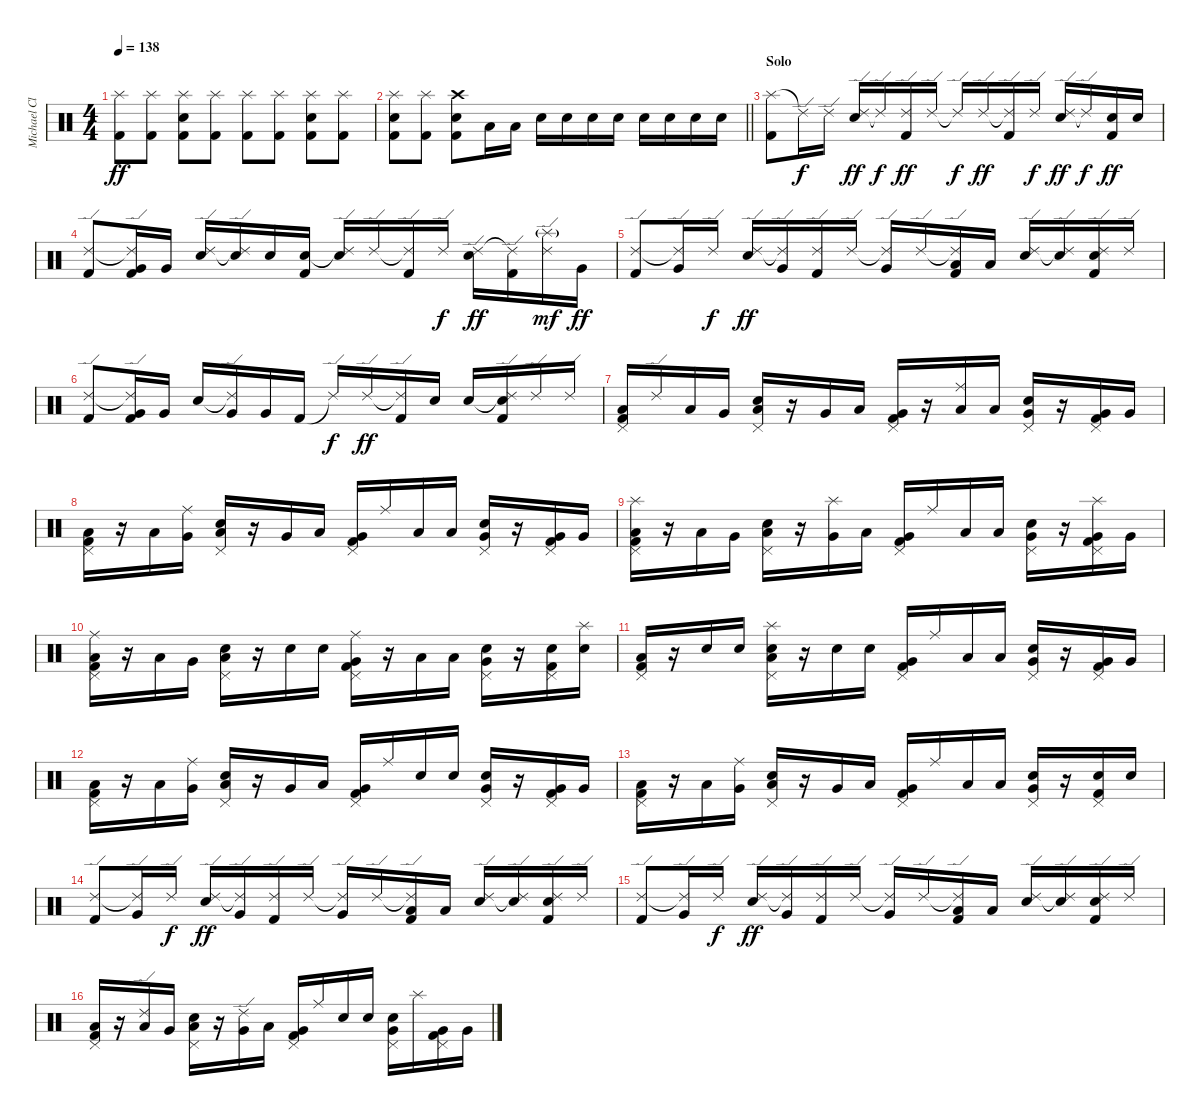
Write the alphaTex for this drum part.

\track ("Michael Clarke" "Michael Cl") {instrument percussion}
\staff {score}
\articulation defaults
\ts (4 4)
\tempo 138
\clef neutral
\ks c
("Splash (hit)" "Kick (hit) 2").8{dy ff} ("Splash (hit)" "Kick (hit) 2").8 ("Splash (hit)" "Snare (hit) 2" "Kick (hit) 2").8 ("Splash (hit)" "Kick (hit) 2").8 ("Splash (hit)" "Kick (hit) 2").8 ("Splash (hit)" "Kick (hit) 2").8 ("Splash (hit)" "Snare (hit) 2" "Kick (hit) 2").8 ("Splash (hit)" "Kick (hit) 2").8 |
\barLineRight lightlight
("Splash (hit)" "Snare (hit) 2" "Kick (hit) 2").8 ("Splash (hit)" "Kick (hit) 2").8 ("Crash high (hit)" "Snare (hit) 2" "Kick (hit) 2").8 "Low Tom (hit)".16 "Low Tom (hit)".16 "Snare (hit) 2".16 "Snare (hit) 2".16 "Snare (hit) 2".16 "Snare (hit) 2".16 "Snare (hit) 2".16 "Snare (hit) 2".16 "Snare (hit) 2".16 "Snare (hit) 2".16 |
\section ("" "Solo")
("Splash (hit)" "Kick (hit) 2").8 "Ride (edge) 2"{t}.16{dy f} "Ride (edge) 2".16 ("Ride (edge) 2" "Snare (hit) 2").16{dy ff} "Ride (edge) 2"{t}.16{dy f} ("Ride (edge) 2" "Kick (hit) 2").16{dy ff} "Ride (edge) 2".16 "Ride (edge) 2"{t}.16{dy f} "Ride (edge) 2".16{dy ff} ("Ride (edge) 2"{t} "Kick (hit) 2").16 "Ride (edge) 2".16{dy f} ("Ride (edge) 2" "Snare (hit) 2").16{dy ff} "Ride (edge) 2"{t}.16{dy f} ("Snare (hit) 2" "Kick (hit) 2").16{dy ff} "Snare (hit) 2".16 |
("Ride (edge) 2" "Kick (hit) 2").8 ("Ride (edge) 2"{t} "Very Low Tom (hit)" "Kick (hit) 2").16 "Very Low Tom (hit)".16 ("Ride (edge) 2" "Snare (hit) 2").16 ("Ride (edge) 2"{t} "Snare (hit) 2").16 "Snare (hit) 2".16 ("Snare (hit) 2" "Kick (hit) 2").16 ("Ride (edge) 2"{t} "Snare (hit) 2").16 "Ride (edge) 2".16 ("Ride (edge) 2"{t} "Kick (hit) 2").16 "Ride (edge) 2".16{dy f} ("Ride (edge) 2" "Snare (hit) 2").16{dy ff} ("Ride (edge) 2"{t} "Kick (hit) 2").16 ("Ride (edge) 2" "Splash (hit)"{g}).16{dy mf} "Very Low Tom (hit)".16{dy ff} |
("Ride (edge) 2" "Kick (hit) 2").8 ("Ride (edge) 2"{t} "Very Low Tom (hit)").16 "Ride (edge) 2".16{dy f} ("Ride (edge) 2" "Snare (hit) 2").16{dy ff} ("Ride (edge) 2"{t} "Very Low Tom (hit)").16 ("Ride (edge) 2" "Kick (hit) 2").16 "Ride (edge) 2".16 ("Ride (edge) 2"{t} "Very Low Tom (hit)").16 "Ride (edge) 2".16 ("Ride (edge) 2"{t} "Low Tom (hit)" "Kick (hit) 2").16 "Low Tom (hit)".16 ("Ride (edge) 2" "Snare (hit) 2").16 ("Ride (edge) 2"{t} "Snare (hit) 2").16 ("Ride (edge) 2" "Snare (hit) 2" "Kick (hit) 2").16 "Ride (edge) 2".16 |
("Ride (edge) 2" "Kick (hit) 2").8 ("Ride (edge) 2"{t} "Very Low Tom (hit)" "Kick (hit) 2").16 "Very Low Tom (hit)".16 "Snare (hit) 2".16 ("Ride (edge) 2"{t} "Very Low Tom (hit)").16 "Very Low Tom (hit)".16 "Kick (hit) 2".16 "Ride (edge) 2"{t}.16{dy f} "Ride (edge) 2".16{dy ff} ("Ride (edge) 2"{t} "Kick (hit) 2").16 "Snare (hit) 2".16 "Snare (hit) 2".16 ("Ride (edge) 2"{t} "Snare (hit) 2" "Kick (hit) 2").16 "Ride (edge) 2".16 "Ride (edge) 2".16 |
("Pedal Hi-Hat (hit)" "Low Floor Tom (hit)" "Kick (hit) 2").16 "Ride (edge) 2".16 "Low Floor Tom (hit)".16 "Very Low Tom (hit)".16 ("Pedal Hi-Hat (hit)" "Low Floor Tom (hit)" "Snare (hit) 2").16 r.16 "Very Low Tom (hit)".16 "Low Floor Tom (hit)".16 ("Pedal Hi-Hat (hit)" "Very Low Tom (hit)" "Kick (hit) 2").16 r.16 ("Ride (middle)" "Low Floor Tom (hit)").16 "Low Floor Tom (hit)".16 ("Pedal Hi-Hat (hit)" "Very Low Tom (hit)" "Snare (hit) 2").16 r.16 ("Pedal Hi-Hat (hit)" "Very Low Tom (hit)" "Kick (hit) 2").16 "Very Low Tom (hit)".16 |
("Pedal Hi-Hat (hit)" "Low Floor Tom (hit)" "Kick (hit) 2").16 r.16 "Low Floor Tom (hit)".16 ("Ride (middle)" "Very Low Tom (hit)").16 ("Pedal Hi-Hat (hit)" "Low Floor Tom (hit)" "Snare (hit) 2").16 r.16 "Very Low Tom (hit)".16 "Low Floor Tom (hit)".16 ("Pedal Hi-Hat (hit)" "Very Low Tom (hit)" "Kick (hit) 2").16 "Ride (middle)".16 "Low Floor Tom (hit)".16 "Low Floor Tom (hit)".16 ("Pedal Hi-Hat (hit)" "Very Low Tom (hit)" "Snare (hit) 2").16 r.16 ("Pedal Hi-Hat (hit)" "Very Low Tom (hit)" "Kick (hit) 2").16 "Very Low Tom (hit)".16 |
("Splash (hit)" "Pedal Hi-Hat (hit)" "Low Floor Tom (hit)" "Kick (hit) 2").16 r.16 "Low Floor Tom (hit)".16 "Very Low Tom (hit)".16 ("Pedal Hi-Hat (hit)" "Low Floor Tom (hit)" "Snare (hit) 2").16 r.16 ("Splash (hit)" "Very Low Tom (hit)").16 "Low Floor Tom (hit)".16 ("Pedal Hi-Hat (hit)" "Very Low Tom (hit)" "Kick (hit) 2").16 "Ride (middle)".16 "Low Floor Tom (hit)".16 "Low Floor Tom (hit)".16 ("Pedal Hi-Hat (hit)" "Very Low Tom (hit)" "Snare (hit) 2").16 r.16 ("Splash (hit)" "Pedal Hi-Hat (hit)" "Very Low Tom (hit)" "Kick (hit) 2").16 "Very Low Tom (hit)".16 |
("Ride (middle)" "Pedal Hi-Hat (hit)" "Low Floor Tom (hit)" "Kick (hit) 2").16 r.16 "Low Floor Tom (hit)".16 "Very Low Tom (hit)".16 ("Pedal Hi-Hat (hit)" "Low Floor Tom (hit)" "Snare (hit) 2").16 r.16 "Snare (hit) 2".16 "Snare (hit) 2".16 ("Ride (middle)" "Pedal Hi-Hat (hit)" "Very Low Tom (hit)" "Kick (hit) 2").16 r.16 "Low Floor Tom (hit)".16 "Low Floor Tom (hit)".16 ("Pedal Hi-Hat (hit)" "Very Low Tom (hit)" "Snare (hit) 2").16 r.16 ("Pedal Hi-Hat (hit)" "Snare (hit) 2" "Kick (hit) 2").16 ("Splash (hit)" "Snare (hit) 2").16 |
("Pedal Hi-Hat (hit)" "Low Floor Tom (hit)" "Kick (hit) 2").16 r.16 "Snare (hit) 2".16 "Snare (hit) 2".16 ("Splash (hit)" "Pedal Hi-Hat (hit)" "Low Floor Tom (hit)" "Snare (hit) 2").16 r.16 "Snare (hit) 2".16 "Snare (hit) 2".16 ("Pedal Hi-Hat (hit)" "Very Low Tom (hit)" "Kick (hit) 2").16 "Ride (middle)".16 "Low Floor Tom (hit)".16 "Low Floor Tom (hit)".16 ("Pedal Hi-Hat (hit)" "Very Low Tom (hit)" "Snare (hit) 2").16 r.16 ("Pedal Hi-Hat (hit)" "Very Low Tom (hit)" "Kick (hit) 2").16 "Very Low Tom (hit)".16 |
("Pedal Hi-Hat (hit)" "Low Floor Tom (hit)" "Kick (hit) 2").16 r.16 "Low Floor Tom (hit)".16 ("Ride (middle)" "Very Low Tom (hit)").16 ("Pedal Hi-Hat (hit)" "Low Floor Tom (hit)" "Snare (hit) 2").16 r.16 "Very Low Tom (hit)".16 "Low Floor Tom (hit)".16 ("Pedal Hi-Hat (hit)" "Very Low Tom (hit)" "Kick (hit) 2").16 "Ride (middle)".16 "Snare (hit) 2".16 "Snare (hit) 2".16 ("Pedal Hi-Hat (hit)" "Very Low Tom (hit)" "Snare (hit) 2").16 r.16 ("Pedal Hi-Hat (hit)" "Very Low Tom (hit)" "Kick (hit) 2").16 "Very Low Tom (hit)".16 |
("Pedal Hi-Hat (hit)" "Low Floor Tom (hit)" "Kick (hit) 2").16 r.16 "Low Floor Tom (hit)".16 ("Ride (middle)" "Very Low Tom (hit)").16 ("Pedal Hi-Hat (hit)" "Low Floor Tom (hit)" "Snare (hit) 2").16 r.16 "Very Low Tom (hit)".16 "Low Floor Tom (hit)".16 ("Pedal Hi-Hat (hit)" "Very Low Tom (hit)" "Kick (hit) 2").16 "Ride (middle)".16 "Low Floor Tom (hit)".16 "Low Floor Tom (hit)".16 ("Pedal Hi-Hat (hit)" "Very Low Tom (hit)" "Snare (hit) 2").16 r.16 ("Pedal Hi-Hat (hit)" "Snare (hit) 2" "Kick (hit) 2").16 "Snare (hit) 2".16 |
("Ride (edge) 2" "Kick (hit) 2").8 ("Ride (edge) 2"{t} "Very Low Tom (hit)").16 "Ride (edge) 2".16{dy f} ("Ride (edge) 2" "Snare (hit) 2").16{dy ff} ("Ride (edge) 2"{t} "Very Low Tom (hit)").16 ("Ride (edge) 2" "Kick (hit) 2").16 "Ride (edge) 2".16 ("Ride (edge) 2"{t} "Very Low Tom (hit)").16 "Ride (edge) 2".16 ("Ride (edge) 2"{t} "Low Tom (hit)" "Kick (hit) 2").16 "Low Tom (hit)".16 ("Ride (edge) 2" "Snare (hit) 2").16 ("Ride (edge) 2"{t} "Snare (hit) 2").16 ("Ride (edge) 2" "Snare (hit) 2" "Kick (hit) 2").16 "Ride (edge) 2".16 |
("Ride (edge) 2" "Kick (hit) 2").8 ("Ride (edge) 2"{t} "Very Low Tom (hit)").16 "Ride (edge) 2".16{dy f} ("Ride (edge) 2" "Snare (hit) 2").16{dy ff} ("Ride (edge) 2"{t} "Very Low Tom (hit)").16 ("Ride (edge) 2" "Kick (hit) 2").16 "Ride (edge) 2".16 ("Ride (edge) 2"{t} "Very Low Tom (hit)").16 "Ride (edge) 2".16 ("Ride (edge) 2"{t} "Low Tom (hit)" "Kick (hit) 2").16 "Low Tom (hit)".16 ("Ride (edge) 2" "Snare (hit) 2").16 ("Ride (edge) 2"{t} "Snare (hit) 2").16 ("Ride (edge) 2" "Snare (hit) 2" "Kick (hit) 2").16 "Ride (edge) 2".16 |
("Pedal Hi-Hat (hit)" "Low Floor Tom (hit)" "Kick (hit) 2").16 r.16 ("Ride (edge) 2" "Low Floor Tom (hit)").16 "Very Low Tom (hit)".16 ("Pedal Hi-Hat (hit)" "Low Floor Tom (hit)" "Snare (hit) 2").16 r.16 ("Ride (edge) 2" "Very Low Tom (hit)").16 "Low Floor Tom (hit)".16 ("Pedal Hi-Hat (hit)" "Very Low Tom (hit)" "Kick (hit) 2").16 "Ride (middle)".16 "Snare (hit) 2".16 "Snare (hit) 2".16 ("Pedal Hi-Hat (hit)" "Very Low Tom (hit)" "Snare (hit) 2").16 "Splash (hit)".16 ("Pedal Hi-Hat (hit)" "Very Low Tom (hit)" "Kick (hit) 2").16 "Very Low Tom (hit)".16
